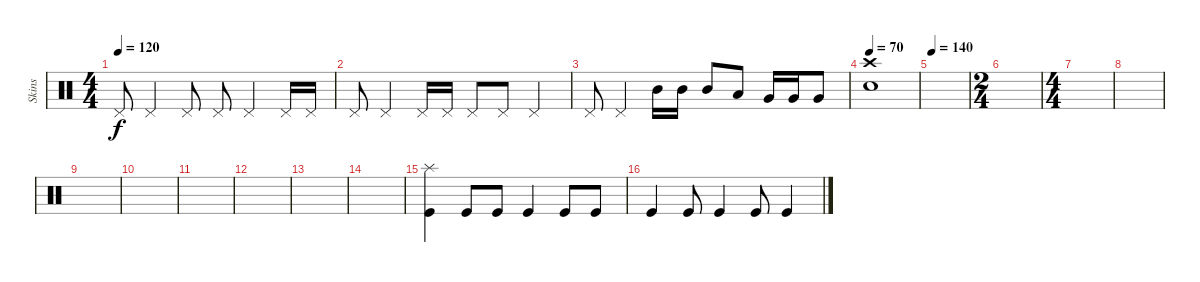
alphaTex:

\track ("Skins" "Skins") {instrument percussion}
\staff {score}
\articulation defaults
\ts (4 4)
\tempo 120
\clef neutral
\ks c "Pedal Hi-Hat (hit)".8{dy f} "Pedal Hi-Hat (hit)".4 "Pedal Hi-Hat (hit)".8 "Pedal Hi-Hat (hit)".8 "Pedal Hi-Hat (hit)".4 "Pedal Hi-Hat (hit)".16 "Pedal Hi-Hat (hit)".16
|
"Pedal Hi-Hat (hit)".8 "Pedal Hi-Hat (hit)".4 "Pedal Hi-Hat (hit)".16 "Pedal Hi-Hat (hit)".16 "Pedal Hi-Hat (hit)".8 "Pedal Hi-Hat (hit)".8 "Pedal Hi-Hat (hit)".4 |
"Pedal Hi-Hat (hit)".8 "Pedal Hi-Hat (hit)".4 "Mid Tom (hit)".16 "Mid Tom (hit)".16 "Mid Tom (hit)".8 "Low Tom (hit)".8 "Very Low Tom (hit)".16 "Very Low Tom (hit)".16 "Very Low Tom (hit)".8 |
\tempo 70
("Electric Snare (hit)" "Crash high (hit)").1 |
\tempo 140
|
\ts (2 4)
|
\ts (4 4)
|
|
|
|
|
|
|
|
("Splash (hit)" "Kick (hit)").4 "Kick (hit)".8 "Kick (hit)".8 "Kick (hit)".4 "Kick (hit)".8 "Kick (hit)".8 |
"Kick (hit)".4 "Kick (hit)".8 "Kick (hit)".4 "Kick (hit)".8 "Kick (hit)".4
